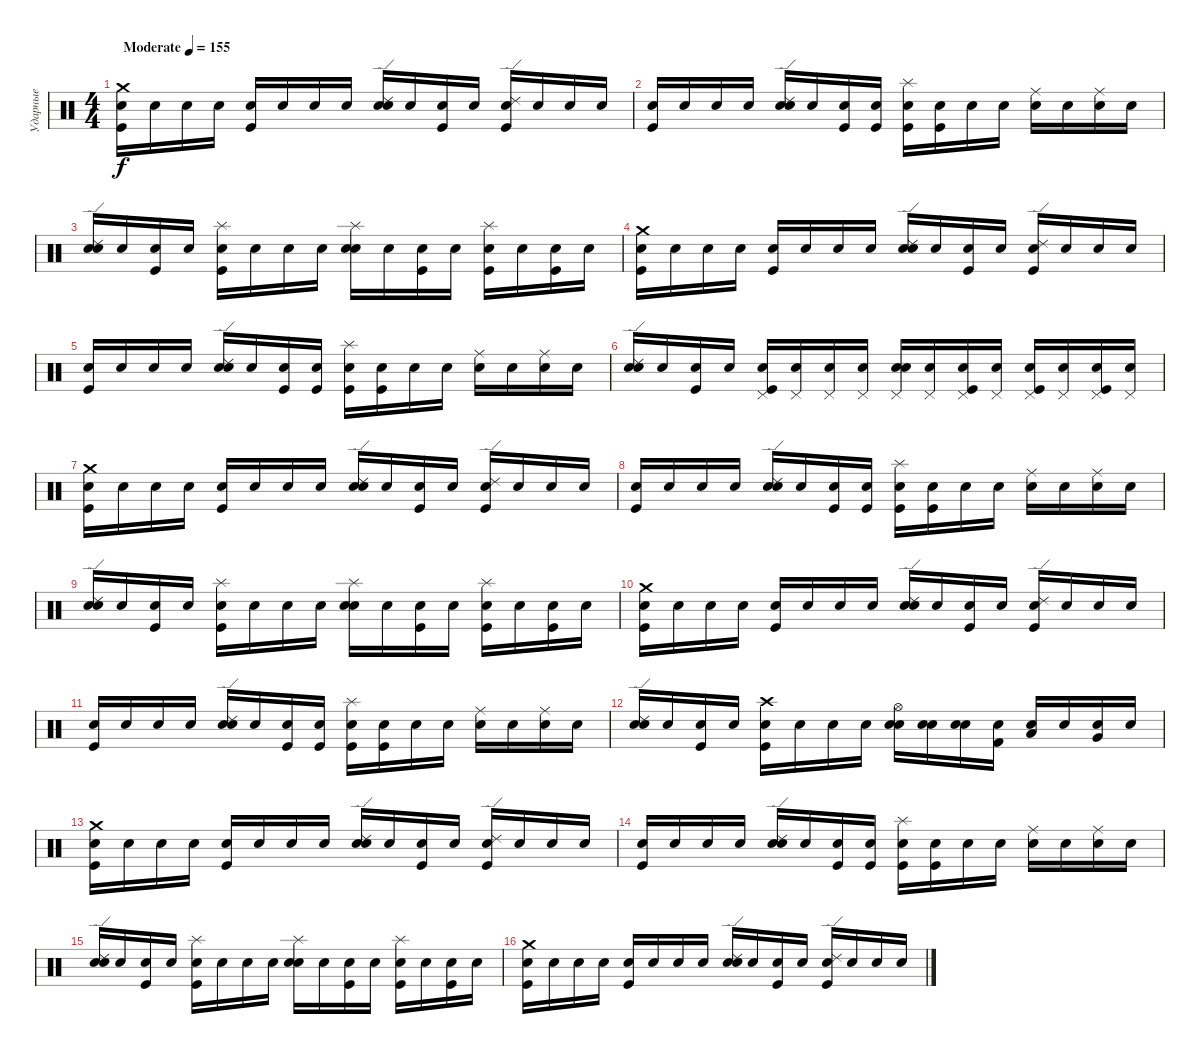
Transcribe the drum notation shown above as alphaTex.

\track ("Ударные" "Ударные") {instrument percussion}
\staff {score}
\articulation defaults
\ts (4 4)
\tempo (155 "Moderate")
\clef neutral
\ks c
("Crash medium (hit)" "Kick (hit)" "Snare (hit)").16{dy f} "Snare (hit)".16 "Snare (hit)".16 "Snare (hit)".16 ("Kick (hit)" "Snare (hit)").16 "Snare (hit)".16 "Snare (hit)".16 "Snare (hit)".16 ("Snare (hit) 2" "Ride (edge) 2" "Snare (hit)").16 "Snare (hit)".16 ("Kick (hit)" "Snare (hit)").16 "Snare (hit)".16 ("Ride (edge) 2" "Kick (hit)" "Snare (hit)").16 "Snare (hit)".16 "Snare (hit)".16 "Snare (hit)".16 |
("Kick (hit)" "Snare (hit)").16 "Snare (hit)".16 "Snare (hit)".16 "Snare (hit)".16 ("Snare (hit) 2" "Ride (edge) 2" "Snare (hit)").16 "Snare (hit)".16 ("Kick (hit)" "Snare (hit)").16 ("Kick (hit)" "Snare (hit)").16 ("Splash (hit)" "Kick (hit)" "Snare (hit)").16 ("Kick (hit)" "Snare (hit)").16 "Snare (hit)".16 "Snare (hit)".16 ("Ride (middle)" "Snare (hit)").16 "Snare (hit)".16 ("Ride (middle)" "Snare (hit)").16 "Snare (hit)".16 |
("Snare (hit) 2" "Ride (edge) 2" "Snare (hit)").16 "Snare (hit)".16 ("Kick (hit)" "Snare (hit)").16 "Snare (hit)".16 ("Splash (hit)" "Kick (hit)" "Snare (hit)").16 "Snare (hit)".16 "Snare (hit)".16 "Snare (hit)".16 ("Splash (hit)" "Snare (hit) 2" "Snare (hit)").16 "Snare (hit)".16 ("Kick (hit)" "Snare (hit)").16 "Snare (hit)".16 ("Splash (hit)" "Kick (hit)" "Snare (hit)").16 "Snare (hit)".16 ("Kick (hit)" "Snare (hit)").16 "Snare (hit)".16 |
("Crash medium (hit)" "Kick (hit)" "Snare (hit)").16 "Snare (hit)".16 "Snare (hit)".16 "Snare (hit)".16 ("Kick (hit)" "Snare (hit)").16 "Snare (hit)".16 "Snare (hit)".16 "Snare (hit)".16 ("Snare (hit) 2" "Ride (edge) 2" "Snare (hit)").16 "Snare (hit)".16 ("Kick (hit)" "Snare (hit)").16 "Snare (hit)".16 ("Ride (edge) 2" "Kick (hit)" "Snare (hit)").16 "Snare (hit)".16 "Snare (hit)".16 "Snare (hit)".16 |
("Kick (hit)" "Snare (hit)").16 "Snare (hit)".16 "Snare (hit)".16 "Snare (hit)".16 ("Snare (hit) 2" "Ride (edge) 2" "Snare (hit)").16 "Snare (hit)".16 ("Kick (hit)" "Snare (hit)").16 ("Kick (hit)" "Snare (hit)").16 ("Splash (hit)" "Kick (hit)" "Snare (hit)").16 ("Kick (hit)" "Snare (hit)").16 "Snare (hit)".16 "Snare (hit)".16 ("Ride (middle)" "Snare (hit)").16 "Snare (hit)".16 ("Ride (middle)" "Snare (hit)").16 "Snare (hit)".16 |
("Snare (hit) 2" "Ride (edge) 2" "Snare (hit)").16 "Snare (hit)".16 ("Kick (hit)" "Snare (hit)").16 "Snare (hit)".16 ("Pedal Hi-Hat (hit)" "Kick (hit)" "Snare (hit)").16 ("Pedal Hi-Hat (hit)" "Snare (hit)").16 ("Pedal Hi-Hat (hit)" "Snare (hit)").16 ("Pedal Hi-Hat (hit)" "Snare (hit)").16 ("Pedal Hi-Hat (hit)" "Snare (hit) 2" "Snare (hit)").16 ("Pedal Hi-Hat (hit)" "Snare (hit)").16 ("Pedal Hi-Hat (hit)" "Kick (hit)" "Snare (hit)").16 ("Pedal Hi-Hat (hit)" "Snare (hit)").16 ("Pedal Hi-Hat (hit)" "Kick (hit)" "Snare (hit)").16 ("Pedal Hi-Hat (hit)" "Snare (hit)").16 ("Pedal Hi-Hat (hit)" "Kick (hit)" "Snare (hit)").16 ("Pedal Hi-Hat (hit)" "Snare (hit)").16 |
("Crash medium (hit)" "Kick (hit)" "Snare (hit)").16 "Snare (hit)".16 "Snare (hit)".16 "Snare (hit)".16 ("Kick (hit)" "Snare (hit)").16 "Snare (hit)".16 "Snare (hit)".16 "Snare (hit)".16 ("Snare (hit) 2" "Ride (edge) 2" "Snare (hit)").16 "Snare (hit)".16 ("Kick (hit)" "Snare (hit)").16 "Snare (hit)".16 ("Ride (edge) 2" "Kick (hit)" "Snare (hit)").16 "Snare (hit)".16 "Snare (hit)".16 "Snare (hit)".16 |
("Kick (hit)" "Snare (hit)").16 "Snare (hit)".16 "Snare (hit)".16 "Snare (hit)".16 ("Snare (hit) 2" "Ride (edge) 2" "Snare (hit)").16 "Snare (hit)".16 ("Kick (hit)" "Snare (hit)").16 ("Kick (hit)" "Snare (hit)").16 ("Splash (hit)" "Kick (hit)" "Snare (hit)").16 ("Kick (hit)" "Snare (hit)").16 "Snare (hit)".16 "Snare (hit)".16 ("Ride (middle)" "Snare (hit)").16 "Snare (hit)".16 ("Ride (middle)" "Snare (hit)").16 "Snare (hit)".16 |
("Snare (hit) 2" "Ride (edge) 2" "Snare (hit)").16 "Snare (hit)".16 ("Kick (hit)" "Snare (hit)").16 "Snare (hit)".16 ("Splash (hit)" "Kick (hit)" "Snare (hit)").16 "Snare (hit)".16 "Snare (hit)".16 "Snare (hit)".16 ("Splash (hit)" "Snare (hit) 2" "Snare (hit)").16 "Snare (hit)".16 ("Kick (hit)" "Snare (hit)").16 "Snare (hit)".16 ("Splash (hit)" "Kick (hit)" "Snare (hit)").16 "Snare (hit)".16 ("Kick (hit)" "Snare (hit)").16 "Snare (hit)".16 |
("Crash medium (hit)" "Kick (hit)" "Snare (hit)").16 "Snare (hit)".16 "Snare (hit)".16 "Snare (hit)".16 ("Kick (hit)" "Snare (hit)").16 "Snare (hit)".16 "Snare (hit)".16 "Snare (hit)".16 ("Snare (hit) 2" "Ride (edge) 2" "Snare (hit)").16 "Snare (hit)".16 ("Kick (hit)" "Snare (hit)").16 "Snare (hit)".16 ("Ride (edge) 2" "Kick (hit)" "Snare (hit)").16 "Snare (hit)".16 "Snare (hit)".16 "Snare (hit)".16 |
("Kick (hit)" "Snare (hit)").16 "Snare (hit)".16 "Snare (hit)".16 "Snare (hit)".16 ("Snare (hit) 2" "Ride (edge) 2" "Snare (hit)").16 "Snare (hit)".16 ("Kick (hit)" "Snare (hit)").16 ("Kick (hit)" "Snare (hit)").16 ("Splash (hit)" "Kick (hit)" "Snare (hit)").16 ("Kick (hit)" "Snare (hit)").16 "Snare (hit)".16 "Snare (hit)".16 ("Ride (middle)" "Snare (hit)").16 "Snare (hit)".16 ("Ride (middle)" "Snare (hit)").16 "Snare (hit)".16 |
("Snare (hit) 2" "Ride (edge) 2" "Snare (hit)").16 "Snare (hit)".16 ("Kick (hit)" "Snare (hit)").16 "Snare (hit)".16 ("Crash high (hit)" "Kick (hit)" "Snare (hit)").16 "Snare (hit)".16 "Snare (hit)".16 "Snare (hit)".16 ("Hi-Hat (open)" "Snare (hit) 2" "Snare (hit)").16 ("Snare (hit) 2" "Snare (hit)").16 ("Snare (hit) 2" "Snare (hit)").16 ("Kick (hit) 2" "Snare (hit)").16 ("Low Tom (hit)" "Snare (hit)").16 "Snare (hit)".16 ("Very Low Tom (hit)" "Snare (hit)").16 "Snare (hit)".16 |
("Crash medium (hit)" "Kick (hit)" "Snare (hit)").16 "Snare (hit)".16 "Snare (hit)".16 "Snare (hit)".16 ("Kick (hit)" "Snare (hit)").16 "Snare (hit)".16 "Snare (hit)".16 "Snare (hit)".16 ("Snare (hit) 2" "Ride (edge) 2" "Snare (hit)").16 "Snare (hit)".16 ("Kick (hit)" "Snare (hit)").16 "Snare (hit)".16 ("Ride (edge) 2" "Kick (hit)" "Snare (hit)").16 "Snare (hit)".16 "Snare (hit)".16 "Snare (hit)".16 |
("Kick (hit)" "Snare (hit)").16 "Snare (hit)".16 "Snare (hit)".16 "Snare (hit)".16 ("Snare (hit) 2" "Ride (edge) 2" "Snare (hit)").16 "Snare (hit)".16 ("Kick (hit)" "Snare (hit)").16 ("Kick (hit)" "Snare (hit)").16 ("Splash (hit)" "Kick (hit)" "Snare (hit)").16 ("Kick (hit)" "Snare (hit)").16 "Snare (hit)".16 "Snare (hit)".16 ("Ride (middle)" "Snare (hit)").16 "Snare (hit)".16 ("Ride (middle)" "Snare (hit)").16 "Snare (hit)".16 |
("Snare (hit) 2" "Ride (edge) 2" "Snare (hit)").16 "Snare (hit)".16 ("Kick (hit)" "Snare (hit)").16 "Snare (hit)".16 ("Splash (hit)" "Kick (hit)" "Snare (hit)").16 "Snare (hit)".16 "Snare (hit)".16 "Snare (hit)".16 ("Splash (hit)" "Snare (hit) 2" "Snare (hit)").16 "Snare (hit)".16 ("Kick (hit)" "Snare (hit)").16 "Snare (hit)".16 ("Splash (hit)" "Kick (hit)" "Snare (hit)").16 "Snare (hit)".16 ("Kick (hit)" "Snare (hit)").16 "Snare (hit)".16 |
("Crash medium (hit)" "Kick (hit)" "Snare (hit)").16 "Snare (hit)".16 "Snare (hit)".16 "Snare (hit)".16 ("Kick (hit)" "Snare (hit)").16 "Snare (hit)".16 "Snare (hit)".16 "Snare (hit)".16 ("Snare (hit) 2" "Ride (edge) 2" "Snare (hit)").16 "Snare (hit)".16 ("Kick (hit)" "Snare (hit)").16 "Snare (hit)".16 ("Ride (edge) 2" "Kick (hit)" "Snare (hit)").16 "Snare (hit)".16 "Snare (hit)".16 "Snare (hit)".16
